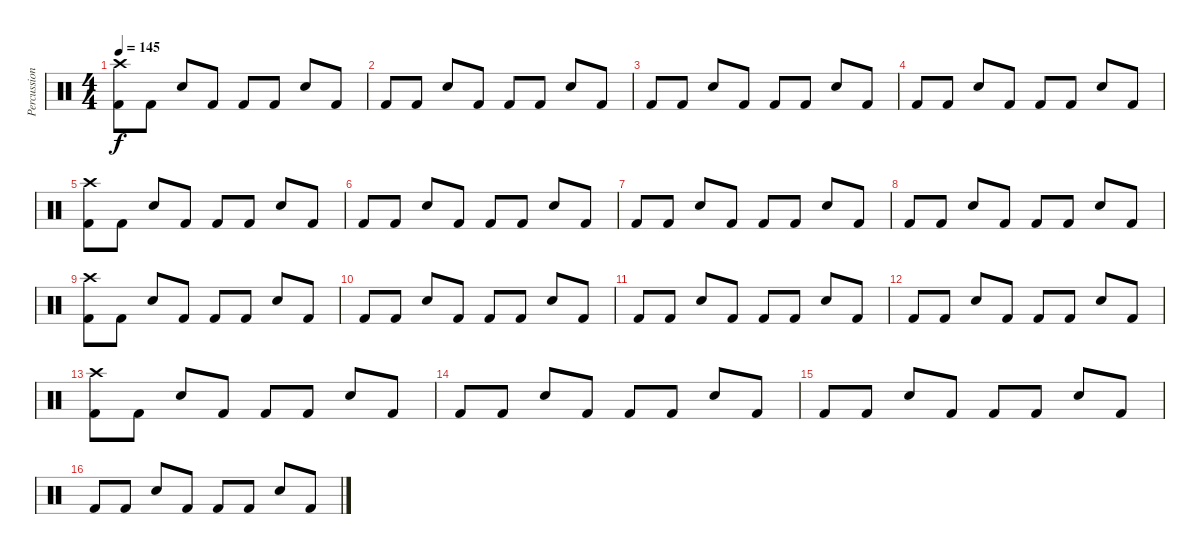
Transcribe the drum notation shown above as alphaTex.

\track ("Percussion" "Percussion") {instrument percussion}
\staff {score}
\articulation defaults
\ts (4 4)
\tempo 145
\clef neutral
\ks c
("Crash high (hit)" "Kick (hit) 2").8{dy f} "Kick (hit) 2".8 "Electric Snare (hit)".8 "Kick (hit) 2".8 "Kick (hit) 2".8 "Kick (hit) 2".8 "Electric Snare (hit)".8 "Kick (hit) 2".8 |
"Kick (hit) 2".8 "Kick (hit) 2".8 "Electric Snare (hit)".8 "Kick (hit) 2".8 "Kick (hit) 2".8 "Kick (hit) 2".8 "Electric Snare (hit)".8 "Kick (hit) 2".8 |
"Kick (hit) 2".8 "Kick (hit) 2".8 "Electric Snare (hit)".8 "Kick (hit) 2".8 "Kick (hit) 2".8 "Kick (hit) 2".8 "Electric Snare (hit)".8 "Kick (hit) 2".8 |
"Kick (hit) 2".8 "Kick (hit) 2".8 "Electric Snare (hit)".8 "Kick (hit) 2".8 "Kick (hit) 2".8 "Kick (hit) 2".8 "Electric Snare (hit)".8 "Kick (hit) 2".8 |
("Crash high (hit)" "Kick (hit) 2").8 "Kick (hit) 2".8 "Electric Snare (hit)".8 "Kick (hit) 2".8 "Kick (hit) 2".8 "Kick (hit) 2".8 "Electric Snare (hit)".8 "Kick (hit) 2".8 |
"Kick (hit) 2".8 "Kick (hit) 2".8 "Electric Snare (hit)".8 "Kick (hit) 2".8 "Kick (hit) 2".8 "Kick (hit) 2".8 "Electric Snare (hit)".8 "Kick (hit) 2".8 |
"Kick (hit) 2".8 "Kick (hit) 2".8 "Electric Snare (hit)".8 "Kick (hit) 2".8 "Kick (hit) 2".8 "Kick (hit) 2".8 "Electric Snare (hit)".8 "Kick (hit) 2".8 |
"Kick (hit) 2".8 "Kick (hit) 2".8 "Electric Snare (hit)".8 "Kick (hit) 2".8 "Kick (hit) 2".8 "Kick (hit) 2".8 "Electric Snare (hit)".8 "Kick (hit) 2".8 |
("Crash high (hit)" "Kick (hit) 2").8 "Kick (hit) 2".8 "Electric Snare (hit)".8 "Kick (hit) 2".8 "Kick (hit) 2".8 "Kick (hit) 2".8 "Electric Snare (hit)".8 "Kick (hit) 2".8 |
"Kick (hit) 2".8 "Kick (hit) 2".8 "Electric Snare (hit)".8 "Kick (hit) 2".8 "Kick (hit) 2".8 "Kick (hit) 2".8 "Electric Snare (hit)".8 "Kick (hit) 2".8 |
"Kick (hit) 2".8 "Kick (hit) 2".8 "Electric Snare (hit)".8 "Kick (hit) 2".8 "Kick (hit) 2".8 "Kick (hit) 2".8 "Electric Snare (hit)".8 "Kick (hit) 2".8 |
"Kick (hit) 2".8 "Kick (hit) 2".8 "Electric Snare (hit)".8 "Kick (hit) 2".8 "Kick (hit) 2".8 "Kick (hit) 2".8 "Electric Snare (hit)".8 "Kick (hit) 2".8 |
("Crash high (hit)" "Kick (hit) 2").8 "Kick (hit) 2".8 "Electric Snare (hit)".8 "Kick (hit) 2".8 "Kick (hit) 2".8 "Kick (hit) 2".8 "Electric Snare (hit)".8 "Kick (hit) 2".8 |
"Kick (hit) 2".8 "Kick (hit) 2".8 "Electric Snare (hit)".8 "Kick (hit) 2".8 "Kick (hit) 2".8 "Kick (hit) 2".8 "Electric Snare (hit)".8 "Kick (hit) 2".8 |
"Kick (hit) 2".8 "Kick (hit) 2".8 "Electric Snare (hit)".8 "Kick (hit) 2".8 "Kick (hit) 2".8 "Kick (hit) 2".8 "Electric Snare (hit)".8 "Kick (hit) 2".8 |
"Kick (hit) 2".8 "Kick (hit) 2".8 "Electric Snare (hit)".8 "Kick (hit) 2".8 "Kick (hit) 2".8 "Kick (hit) 2".8 "Electric Snare (hit)".8 "Kick (hit) 2".8
